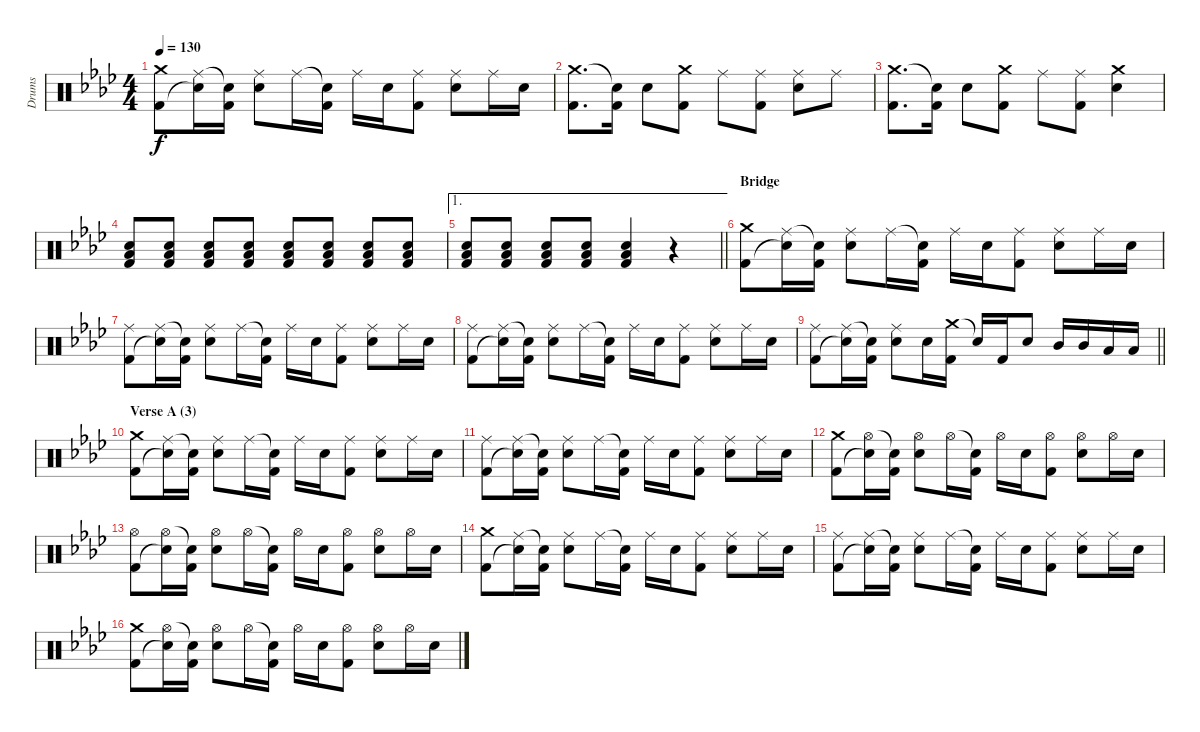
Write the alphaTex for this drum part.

\track ("Drums" "Drums") {instrument percussion}
\staff {score}
\articulation defaults
\ts (4 4)
\tempo 130
\clef neutral
\ks fminor
("Crash medium (hit)" "Kick (hit) 2").8{dy f} ("Ride (middle)" "Snare (hit)"{t}).16 ("Snare (hit)"{t} "Kick (hit) 2").16 ("Ride (middle)" "Electric Snare (hit)").8 "Ride (middle)".16 ("Snare (hit)"{t} "Kick (hit) 2").16 "Ride (middle)".16 "Electric Snare (hit)".16 ("Ride (middle)" "Kick (hit) 2").8 ("Ride (middle)" "Electric Snare (hit)").8 "Ride (middle)".16 "Electric Snare (hit)".16 |
("Crash medium (hit)" "Kick (hit) 2").8{d} ("Snare (hit)"{t} "Kick (hit) 2").16 "Electric Snare (hit)".8 ("Crash medium (hit)" "Kick (hit) 2").8 "Ride (middle)".8 ("Ride (middle)" "Kick (hit) 2").8 ("Ride (middle)" "Electric Snare (hit)").8 "Ride (middle)".8 |
("Crash medium (hit)" "Kick (hit) 2").8{d} ("Snare (hit)"{t} "Kick (hit) 2").16 "Electric Snare (hit)".8 ("Crash medium (hit)" "Kick (hit) 2").8 "Ride (middle)".8 ("Ride (middle)" "Kick (hit) 2").8 ("Crash medium (hit)" "Electric Snare (hit)").4 |
("Electric Snare (hit)" "Low Floor Tom (hit)" "Kick (hit) 2").8 ("Electric Snare (hit)" "Low Floor Tom (hit)" "Kick (hit) 2").8 ("Electric Snare (hit)" "Low Floor Tom (hit)" "Kick (hit) 2").8 ("Electric Snare (hit)" "Low Floor Tom (hit)" "Kick (hit) 2").8 ("Electric Snare (hit)" "Low Floor Tom (hit)" "Kick (hit) 2").8 ("Electric Snare (hit)" "Low Floor Tom (hit)" "Kick (hit) 2").8 ("Electric Snare (hit)" "Low Floor Tom (hit)" "Kick (hit) 2").8 ("Electric Snare (hit)" "Low Floor Tom (hit)" "Kick (hit) 2").8 |
\ae 1
\barLineRight lightlight
("Electric Snare (hit)" "Low Floor Tom (hit)" "Kick (hit) 2").8 ("Electric Snare (hit)" "Low Floor Tom (hit)" "Kick (hit) 2").8 ("Electric Snare (hit)" "Low Floor Tom (hit)" "Kick (hit) 2").8 ("Electric Snare (hit)" "Low Floor Tom (hit)" "Kick (hit) 2").8 ("Electric Snare (hit)" "Low Floor Tom (hit)" "Kick (hit) 2").4 r.4 |
\section ("" "Bridge")
("Crash medium (hit)" "Kick (hit) 2").8 ("Ride (middle)" "Snare (hit)"{t}).16 ("Snare (hit)"{t} "Kick (hit) 2").16 ("Ride (middle)" "Electric Snare (hit)").8 "Ride (middle)".16 ("Snare (hit)"{t} "Kick (hit) 2").16 "Ride (middle)".16 "Electric Snare (hit)".16 ("Ride (middle)" "Kick (hit) 2").8 ("Ride (middle)" "Electric Snare (hit)").8 "Ride (middle)".16 "Electric Snare (hit)".16 |
("Ride (middle)" "Kick (hit) 2").8 ("Ride (middle)" "Snare (hit)"{t}).16 ("Snare (hit)"{t} "Kick (hit) 2").16 ("Ride (middle)" "Electric Snare (hit)").8 "Ride (middle)".16 ("Snare (hit)"{t} "Kick (hit) 2").16 "Ride (middle)".16 "Electric Snare (hit)".16 ("Ride (middle)" "Kick (hit) 2").8 ("Ride (middle)" "Electric Snare (hit)").8 "Ride (middle)".16 "Electric Snare (hit)".16 |
("Ride (middle)" "Kick (hit) 2").8 ("Ride (middle)" "Snare (hit)"{t}).16 ("Snare (hit)"{t} "Kick (hit) 2").16 ("Ride (middle)" "Electric Snare (hit)").8 "Ride (middle)".16 ("Snare (hit)"{t} "Kick (hit) 2").16 "Ride (middle)".16 "Electric Snare (hit)".16 ("Ride (middle)" "Kick (hit) 2").8 ("Ride (middle)" "Electric Snare (hit)").8 "Ride (middle)".16 "Electric Snare (hit)".16 |
\barLineRight lightlight
("Ride (middle)" "Kick (hit) 2").8 ("Ride (middle)" "Snare (hit)"{t}).16 ("Snare (hit)"{t} "Kick (hit) 2").16 ("Ride (middle)" "Electric Snare (hit)").8 "Electric Snare (hit)".16 ("Crash medium (hit)" "Kick (hit) 2").16 "Snare (hit)"{t}.16 "Kick (hit) 2".16 "Electric Snare (hit)".8 "Mid Tom (hit)".16 "Mid Tom (hit)".16 "Low Floor Tom (hit)".16 "Low Floor Tom (hit)".16 |
\section ("" "Verse A (3)")
("Crash medium (hit)" "Kick (hit) 2").8 ("Ride (middle)" "Snare (hit)"{t}).16 ("Snare (hit)"{t} "Kick (hit) 2").16 ("Ride (middle)" "Electric Snare (hit)").8 "Ride (middle)".16 ("Snare (hit)"{t} "Kick (hit) 2").16 "Ride (middle)".16 "Electric Snare (hit)".16 ("Ride (middle)" "Kick (hit) 2").8 ("Ride (middle)" "Electric Snare (hit)").8 "Ride (middle)".16 "Electric Snare (hit)".16 |
("Ride (middle)" "Kick (hit) 2").8 ("Ride (middle)" "Snare (hit)"{t}).16 ("Snare (hit)"{t} "Kick (hit) 2").16 ("Ride (middle)" "Electric Snare (hit)").8 "Ride (middle)".16 ("Snare (hit)"{t} "Kick (hit) 2").16 "Ride (middle)".16 "Electric Snare (hit)".16 ("Ride (middle)" "Kick (hit) 2").8 ("Ride (middle)" "Electric Snare (hit)").8 "Ride (middle)".16 "Electric Snare (hit)".16 |
("Crash medium (hit)" "Kick (hit) 2").8 ("Hi-Hat (open)" "Snare (hit)"{t}).16 ("Snare (hit)"{t} "Kick (hit) 2").16 ("Hi-Hat (open)" "Electric Snare (hit)").8 "Hi-Hat (open)".16 ("Snare (hit)"{t} "Kick (hit) 2").16 "Hi-Hat (open)".16 "Electric Snare (hit)".16 ("Hi-Hat (open)" "Kick (hit) 2").8 ("Hi-Hat (open)" "Electric Snare (hit)").8 "Hi-Hat (open)".16 "Electric Snare (hit)".16 |
("Hi-Hat (open)" "Kick (hit) 2").8 ("Hi-Hat (open)" "Snare (hit)"{t}).16 ("Snare (hit)"{t} "Kick (hit) 2").16 ("Hi-Hat (open)" "Electric Snare (hit)").8 "Hi-Hat (open)".16 ("Snare (hit)"{t} "Kick (hit) 2").16 "Hi-Hat (open)".16 "Electric Snare (hit)".16 ("Hi-Hat (open)" "Kick (hit) 2").8 ("Hi-Hat (open)" "Electric Snare (hit)").8 "Hi-Hat (open)".16 "Electric Snare (hit)".16 |
("Crash medium (hit)" "Kick (hit) 2").8 ("Ride (middle)" "Snare (hit)"{t}).16 ("Snare (hit)"{t} "Kick (hit) 2").16 ("Ride (middle)" "Electric Snare (hit)").8 "Ride (middle)".16 ("Snare (hit)"{t} "Kick (hit) 2").16 "Ride (middle)".16 "Electric Snare (hit)".16 ("Ride (middle)" "Kick (hit) 2").8 ("Ride (middle)" "Electric Snare (hit)").8 "Ride (middle)".16 "Electric Snare (hit)".16 |
("Ride (middle)" "Kick (hit) 2").8 ("Ride (middle)" "Snare (hit)"{t}).16 ("Snare (hit)"{t} "Kick (hit) 2").16 ("Ride (middle)" "Electric Snare (hit)").8 "Ride (middle)".16 ("Snare (hit)"{t} "Kick (hit) 2").16 "Ride (middle)".16 "Electric Snare (hit)".16 ("Ride (middle)" "Kick (hit) 2").8 ("Ride (middle)" "Electric Snare (hit)").8 "Ride (middle)".16 "Electric Snare (hit)".16 |
("Crash medium (hit)" "Kick (hit) 2").8 ("Hi-Hat (open)" "Snare (hit)"{t}).16 ("Snare (hit)"{t} "Kick (hit) 2").16 ("Hi-Hat (open)" "Electric Snare (hit)").8 "Hi-Hat (open)".16 ("Snare (hit)"{t} "Kick (hit) 2").16 "Hi-Hat (open)".16 "Electric Snare (hit)".16 ("Hi-Hat (open)" "Kick (hit) 2").8 ("Hi-Hat (open)" "Electric Snare (hit)").8 "Hi-Hat (open)".16 "Electric Snare (hit)".16
